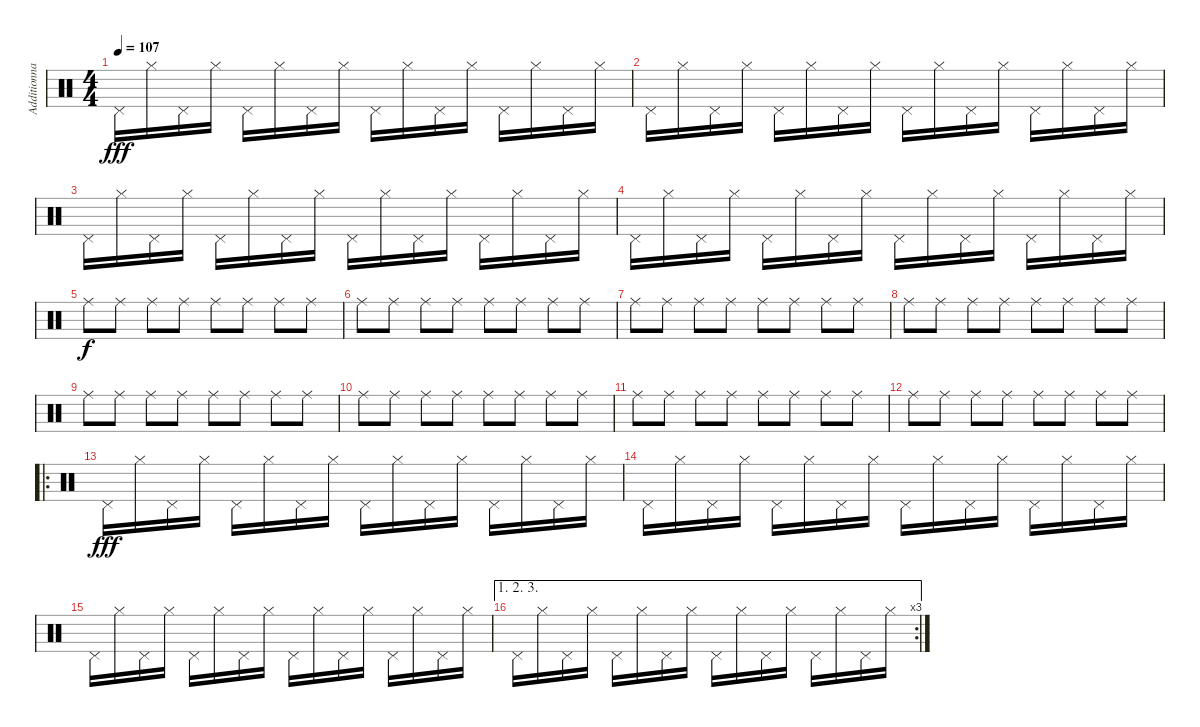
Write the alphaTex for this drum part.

\track ("Additionnals Symbals" "Additionna") {instrument percussion}
\staff {score}
\articulation defaults
\ts (4 4)
\tempo 107
\clef neutral
\ks c "Pedal Hi-Hat (hit)".16{dy fff} "Hi-Hat (closed)".16 "Pedal Hi-Hat (hit)".16 "Hi-Hat (closed)".16 "Pedal Hi-Hat (hit)".16 "Hi-Hat (closed)".16 "Pedal Hi-Hat (hit)".16 "Hi-Hat (closed)".16 "Pedal Hi-Hat (hit)".16 "Hi-Hat (closed)".16 "Pedal Hi-Hat (hit)".16 "Hi-Hat (closed)".16 "Pedal Hi-Hat (hit)".16 "Hi-Hat (closed)".16 "Pedal Hi-Hat (hit)".16 "Hi-Hat (closed)".16
|
"Pedal Hi-Hat (hit)".16 "Hi-Hat (closed)".16 "Pedal Hi-Hat (hit)".16 "Hi-Hat (closed)".16 "Pedal Hi-Hat (hit)".16 "Hi-Hat (closed)".16 "Pedal Hi-Hat (hit)".16 "Hi-Hat (closed)".16 "Pedal Hi-Hat (hit)".16 "Hi-Hat (closed)".16 "Pedal Hi-Hat (hit)".16 "Hi-Hat (closed)".16 "Pedal Hi-Hat (hit)".16 "Hi-Hat (closed)".16 "Pedal Hi-Hat (hit)".16 "Hi-Hat (closed)".16 |
"Pedal Hi-Hat (hit)".16 "Hi-Hat (closed)".16 "Pedal Hi-Hat (hit)".16 "Hi-Hat (closed)".16 "Pedal Hi-Hat (hit)".16 "Hi-Hat (closed)".16 "Pedal Hi-Hat (hit)".16 "Hi-Hat (closed)".16 "Pedal Hi-Hat (hit)".16 "Hi-Hat (closed)".16 "Pedal Hi-Hat (hit)".16 "Hi-Hat (closed)".16 "Pedal Hi-Hat (hit)".16 "Hi-Hat (closed)".16 "Pedal Hi-Hat (hit)".16 "Hi-Hat (closed)".16 |
"Pedal Hi-Hat (hit)".16 "Hi-Hat (closed)".16 "Pedal Hi-Hat (hit)".16 "Hi-Hat (closed)".16 "Pedal Hi-Hat (hit)".16 "Hi-Hat (closed)".16 "Pedal Hi-Hat (hit)".16 "Hi-Hat (closed)".16 "Pedal Hi-Hat (hit)".16 "Hi-Hat (closed)".16 "Pedal Hi-Hat (hit)".16 "Hi-Hat (closed)".16 "Pedal Hi-Hat (hit)".16 "Hi-Hat (closed)".16 "Pedal Hi-Hat (hit)".16 "Hi-Hat (closed)".16 |
"Ride (middle)".8{dy f} "Ride (middle)".8 "Ride (middle)".8 "Ride (middle)".8 "Ride (middle)".8 "Ride (middle)".8 "Ride (middle)".8 "Ride (middle)".8 |
"Ride (middle)".8 "Ride (middle)".8 "Ride (middle)".8 "Ride (middle)".8 "Ride (middle)".8 "Ride (middle)".8 "Ride (middle)".8 "Ride (middle)".8 |
"Ride (middle)".8 "Ride (middle)".8 "Ride (middle)".8 "Ride (middle)".8 "Ride (middle)".8 "Ride (middle)".8 "Ride (middle)".8 "Ride (middle)".8 |
"Ride (middle)".8 "Ride (middle)".8 "Ride (middle)".8 "Ride (middle)".8 "Ride (middle)".8 "Ride (middle)".8 "Ride (middle)".8 "Ride (middle)".8 |
"Ride (middle)".8 "Ride (middle)".8 "Ride (middle)".8 "Ride (middle)".8 "Ride (middle)".8 "Ride (middle)".8 "Ride (middle)".8 "Ride (middle)".8 |
"Ride (middle)".8 "Ride (middle)".8 "Ride (middle)".8 "Ride (middle)".8 "Ride (middle)".8 "Ride (middle)".8 "Ride (middle)".8 "Ride (middle)".8 |
"Ride (middle)".8 "Ride (middle)".8 "Ride (middle)".8 "Ride (middle)".8 "Ride (middle)".8 "Ride (middle)".8 "Ride (middle)".8 "Ride (middle)".8 |
"Ride (middle)".8 "Ride (middle)".8 "Ride (middle)".8 "Ride (middle)".8 "Ride (middle)".8 "Ride (middle)".8 "Ride (middle)".8 "Ride (middle)".8 |
\ro "Pedal Hi-Hat (hit)".16{dy fff} "Hi-Hat (closed)".16 "Pedal Hi-Hat (hit)".16 "Hi-Hat (closed)".16 "Pedal Hi-Hat (hit)".16 "Hi-Hat (closed)".16 "Pedal Hi-Hat (hit)".16 "Hi-Hat (closed)".16 "Pedal Hi-Hat (hit)".16 "Hi-Hat (closed)".16 "Pedal Hi-Hat (hit)".16 "Hi-Hat (closed)".16 "Pedal Hi-Hat (hit)".16 "Hi-Hat (closed)".16 "Pedal Hi-Hat (hit)".16 "Hi-Hat (closed)".16
|
"Pedal Hi-Hat (hit)".16 "Hi-Hat (closed)".16 "Pedal Hi-Hat (hit)".16 "Hi-Hat (closed)".16 "Pedal Hi-Hat (hit)".16 "Hi-Hat (closed)".16 "Pedal Hi-Hat (hit)".16 "Hi-Hat (closed)".16 "Pedal Hi-Hat (hit)".16 "Hi-Hat (closed)".16 "Pedal Hi-Hat (hit)".16 "Hi-Hat (closed)".16 "Pedal Hi-Hat (hit)".16 "Hi-Hat (closed)".16 "Pedal Hi-Hat (hit)".16 "Hi-Hat (closed)".16 |
"Pedal Hi-Hat (hit)".16 "Hi-Hat (closed)".16 "Pedal Hi-Hat (hit)".16 "Hi-Hat (closed)".16 "Pedal Hi-Hat (hit)".16 "Hi-Hat (closed)".16 "Pedal Hi-Hat (hit)".16 "Hi-Hat (closed)".16 "Pedal Hi-Hat (hit)".16 "Hi-Hat (closed)".16 "Pedal Hi-Hat (hit)".16 "Hi-Hat (closed)".16 "Pedal Hi-Hat (hit)".16 "Hi-Hat (closed)".16 "Pedal Hi-Hat (hit)".16 "Hi-Hat (closed)".16 |
\ae (1 2 3)
\rc 3 "Pedal Hi-Hat (hit)".16 "Hi-Hat (closed)".16 "Pedal Hi-Hat (hit)".16 "Hi-Hat (closed)".16 "Pedal Hi-Hat (hit)".16 "Hi-Hat (closed)".16 "Pedal Hi-Hat (hit)".16 "Hi-Hat (closed)".16 "Pedal Hi-Hat (hit)".16 "Hi-Hat (closed)".16 "Pedal Hi-Hat (hit)".16 "Hi-Hat (closed)".16 "Pedal Hi-Hat (hit)".16 "Hi-Hat (closed)".16 "Pedal Hi-Hat (hit)".16 "Hi-Hat (closed)".16
